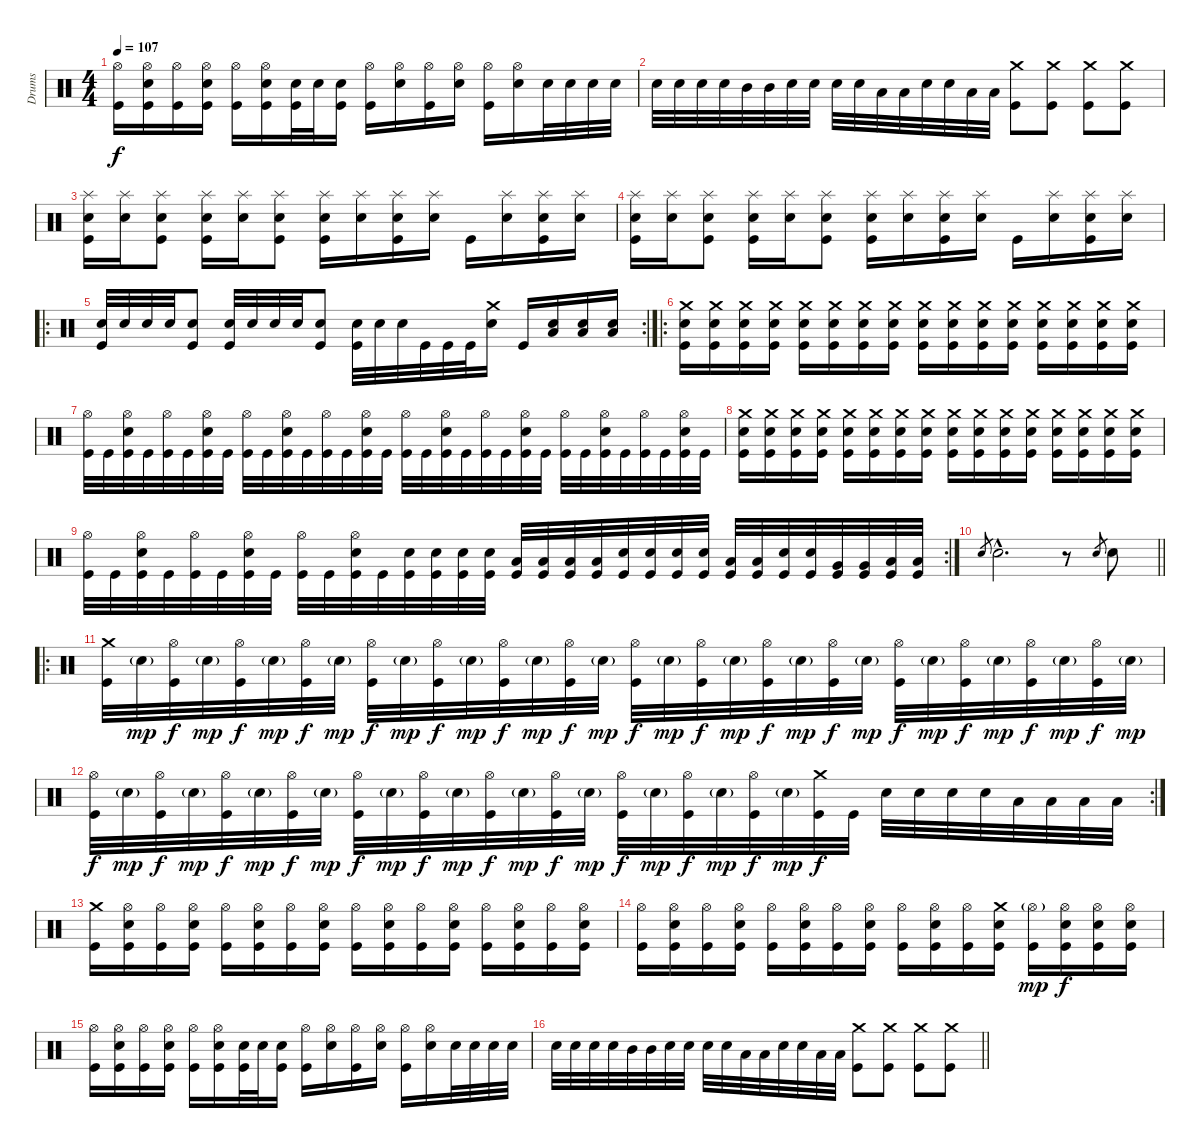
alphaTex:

\track ("Drums" "Drums") {instrument percussion}
\staff {score}
\articulation defaults
\ts (4 4)
\tempo 107
\clef neutral
\ks c
("Hi-Hat (open)" "Kick (hit)").16{dy f} ("Hi-Hat (open)" "Electric Snare (hit)" "Kick (hit)").16 ("Hi-Hat (open)" "Kick (hit)").16 ("Hi-Hat (open)" "Electric Snare (hit)" "Kick (hit)").16 ("Hi-Hat (open)" "Kick (hit)").16 ("Hi-Hat (open)" "Electric Snare (hit)" "Kick (hit)").16 ("Electric Snare (hit)" "Kick (hit)").32 "Electric Snare (hit)".32 ("Electric Snare (hit)" "Kick (hit)").16 ("Hi-Hat (open)" "Kick (hit)").16 ("Hi-Hat (open)" "Electric Snare (hit)").16 ("Hi-Hat (open)" "Kick (hit)").16 ("Hi-Hat (open)" "Electric Snare (hit)").16 ("Hi-Hat (open)" "Kick (hit)").16 ("Hi-Hat (open)" "Electric Snare (hit)").16 "Electric Snare (hit)".32 "Electric Snare (hit)".32 "Electric Snare (hit)".32 "Electric Snare (hit)".32 |
"Electric Snare (hit)".32 "Electric Snare (hit)".32 "Electric Snare (hit)".32 "Electric Snare (hit)".32 "Mid Tom (hit)".32 "Mid Tom (hit)".32 "Electric Snare (hit)".32 "Electric Snare (hit)".32 "Electric Snare (hit)".32 "Electric Snare (hit)".32 "Low Tom (hit)".32 "Low Tom (hit)".32 "Electric Snare (hit)".32 "Electric Snare (hit)".32 "Low Floor Tom (hit)".32 "Low Floor Tom (hit)".32 ("Crash medium (hit)" "Kick (hit)").8 ("Crash medium (hit)" "Kick (hit)").8 ("Crash medium (hit)" "Kick (hit)").8 ("Crash medium (hit)" "Kick (hit)").8 |
("Electric Snare (hit)" "Splash (hit)" "Kick (hit)").16 ("Electric Snare (hit)" "Splash (hit)").16 ("Electric Snare (hit)" "Splash (hit)" "Kick (hit)").8 ("Splash (hit)" "Electric Snare (hit)" "Kick (hit)").16 ("Splash (hit)" "Electric Snare (hit)").16 ("Splash (hit)" "Electric Snare (hit)" "Kick (hit)").8 ("Splash (hit)" "Electric Snare (hit)" "Kick (hit)").16 ("Splash (hit)" "Electric Snare (hit)").16 ("Splash (hit)" "Electric Snare (hit)" "Kick (hit)").16 ("Splash (hit)" "Electric Snare (hit)").16 "Kick (hit)".16 ("Splash (hit)" "Electric Snare (hit)").16 ("Splash (hit)" "Electric Snare (hit)" "Kick (hit)").16 ("Splash (hit)" "Electric Snare (hit)").16 |
("Electric Snare (hit)" "Splash (hit)" "Kick (hit)").16 ("Electric Snare (hit)" "Splash (hit)").16 ("Electric Snare (hit)" "Splash (hit)" "Kick (hit)").8 ("Splash (hit)" "Electric Snare (hit)" "Kick (hit)").16 ("Splash (hit)" "Electric Snare (hit)").16 ("Splash (hit)" "Electric Snare (hit)" "Kick (hit)").8 ("Splash (hit)" "Electric Snare (hit)" "Kick (hit)").16 ("Splash (hit)" "Electric Snare (hit)").16 ("Splash (hit)" "Electric Snare (hit)" "Kick (hit)").16 ("Splash (hit)" "Electric Snare (hit)").16 "Kick (hit)".16 ("Splash (hit)" "Electric Snare (hit)").16 ("Splash (hit)" "Electric Snare (hit)" "Kick (hit)").16 ("Splash (hit)" "Electric Snare (hit)").16 |
\ro
\rc 2
("Electric Snare (hit)" "Kick (hit)").32 "Electric Snare (hit)".32 "Electric Snare (hit)".32 "Electric Snare (hit)".32 ("Electric Snare (hit)" "Kick (hit)").8 ("Electric Snare (hit)" "Kick (hit)").32 "Electric Snare (hit)".32 "Electric Snare (hit)".32 "Electric Snare (hit)".32 ("Electric Snare (hit)" "Kick (hit)").8 ("Electric Snare (hit)" "Kick (hit)").32 "Electric Snare (hit)".32 "Electric Snare (hit)".32 "Kick (hit)".32 "Kick (hit)".32 "Kick (hit)".32 ("Crash medium (hit)" "Electric Snare (hit)").16 "Kick (hit)".16 ("Electric Snare (hit)" "Low Floor Tom (hit)").16 ("Electric Snare (hit)" "Low Floor Tom (hit)").16 ("Electric Snare (hit)" "Low Floor Tom (hit)").16 |
\ro
("Crash medium (hit)" "Electric Snare (hit)" "Kick (hit)").16 ("Crash medium (hit)" "Electric Snare (hit)" "Kick (hit)").16 ("Crash medium (hit)" "Electric Snare (hit)" "Kick (hit)").16 ("Crash medium (hit)" "Electric Snare (hit)" "Kick (hit)").16 ("Crash medium (hit)" "Electric Snare (hit)" "Kick (hit)").16 ("Crash medium (hit)" "Electric Snare (hit)" "Kick (hit)").16 ("Crash medium (hit)" "Electric Snare (hit)" "Kick (hit)").16 ("Crash medium (hit)" "Electric Snare (hit)" "Kick (hit)").16 ("Crash medium (hit)" "Electric Snare (hit)" "Kick (hit)").16 ("Crash medium (hit)" "Electric Snare (hit)" "Kick (hit)").16 ("Crash medium (hit)" "Electric Snare (hit)" "Kick (hit)").16 ("Crash medium (hit)" "Electric Snare (hit)" "Kick (hit)").16 ("Crash medium (hit)" "Electric Snare (hit)" "Kick (hit)").16 ("Crash medium (hit)" "Electric Snare (hit)" "Kick (hit)").16 ("Crash medium (hit)" "Electric Snare (hit)" "Kick (hit)").16 ("Crash medium (hit)" "Electric Snare (hit)" "Kick (hit)").16 |
("Hi-Hat (open)" "Kick (hit)").32 "Kick (hit)".32 ("Hi-Hat (open)" "Electric Snare (hit)" "Kick (hit)").32 "Kick (hit)".32 ("Hi-Hat (open)" "Kick (hit)").32 "Kick (hit)".32 ("Hi-Hat (open)" "Electric Snare (hit)" "Kick (hit)").32 "Kick (hit)".32 ("Hi-Hat (open)" "Kick (hit)").32 "Kick (hit)".32 ("Hi-Hat (open)" "Electric Snare (hit)" "Kick (hit)").32 "Kick (hit)".32 ("Hi-Hat (open)" "Kick (hit)").32 "Kick (hit)".32 ("Hi-Hat (open)" "Electric Snare (hit)" "Kick (hit)").32 "Kick (hit)".32 ("Hi-Hat (open)" "Kick (hit)").32 "Kick (hit)".32 ("Hi-Hat (open)" "Electric Snare (hit)" "Kick (hit)").32 "Kick (hit)".32 ("Hi-Hat (open)" "Kick (hit)").32 "Kick (hit)".32 ("Hi-Hat (open)" "Electric Snare (hit)" "Kick (hit)").32 "Kick (hit)".32 ("Hi-Hat (open)" "Kick (hit)").32 "Kick (hit)".32 ("Hi-Hat (open)" "Electric Snare (hit)" "Kick (hit)").32 "Kick (hit)".32 ("Hi-Hat (open)" "Kick (hit)").32 "Kick (hit)".32 ("Hi-Hat (open)" "Electric Snare (hit)" "Kick (hit)").32 "Kick (hit)".32 |
("Crash medium (hit)" "Electric Snare (hit)" "Kick (hit)").16 ("Crash medium (hit)" "Electric Snare (hit)" "Kick (hit)").16 ("Crash medium (hit)" "Electric Snare (hit)" "Kick (hit)").16 ("Crash medium (hit)" "Electric Snare (hit)" "Kick (hit)").16 ("Crash medium (hit)" "Electric Snare (hit)" "Kick (hit)").16 ("Crash medium (hit)" "Electric Snare (hit)" "Kick (hit)").16 ("Crash medium (hit)" "Electric Snare (hit)" "Kick (hit)").16 ("Crash medium (hit)" "Electric Snare (hit)" "Kick (hit)").16 ("Crash medium (hit)" "Electric Snare (hit)" "Kick (hit)").16 ("Crash medium (hit)" "Electric Snare (hit)" "Kick (hit)").16 ("Crash medium (hit)" "Electric Snare (hit)" "Kick (hit)").16 ("Crash medium (hit)" "Electric Snare (hit)" "Kick (hit)").16 ("Crash medium (hit)" "Electric Snare (hit)" "Kick (hit)").16 ("Crash medium (hit)" "Electric Snare (hit)" "Kick (hit)").16 ("Crash medium (hit)" "Electric Snare (hit)" "Kick (hit)").16 ("Crash medium (hit)" "Electric Snare (hit)" "Kick (hit)").16 |
\rc 2
("Hi-Hat (open)" "Kick (hit)").32 "Kick (hit)".32 ("Hi-Hat (open)" "Electric Snare (hit)" "Kick (hit)").32 "Kick (hit)".32 ("Hi-Hat (open)" "Kick (hit)").32 "Kick (hit)".32 ("Hi-Hat (open)" "Electric Snare (hit)" "Kick (hit)").32 "Kick (hit)".32 ("Hi-Hat (open)" "Kick (hit)").32 "Kick (hit)".32 ("Hi-Hat (open)" "Electric Snare (hit)" "Kick (hit)").32 "Kick (hit)".32 ("Electric Snare (hit)" "Kick (hit)").32 ("Electric Snare (hit)" "Kick (hit)").32 ("Electric Snare (hit)" "Kick (hit)").32 ("Electric Snare (hit)" "Kick (hit)").32 ("Low Tom (hit)" "Kick (hit)").32 ("Low Tom (hit)" "Kick (hit)").32 ("Low Tom (hit)" "Kick (hit)").32 ("Low Tom (hit)" "Kick (hit)").32 ("Electric Snare (hit)" "Kick (hit)").32 ("Electric Snare (hit)" "Kick (hit)").32 ("Electric Snare (hit)" "Kick (hit)").32 ("Electric Snare (hit)" "Kick (hit)").32 ("Low Tom (hit)" "Kick (hit)").32 ("Low Tom (hit)" "Kick (hit)").32 ("Electric Snare (hit)" "Kick (hit)").32 ("Electric Snare (hit)" "Kick (hit)").32 ("Very Low Tom (hit)" "Kick (hit)").32 ("Very Low Tom (hit)" "Kick (hit)").32 ("Low Floor Tom (hit)" "Kick (hit)").32 ("Low Floor Tom (hit)" "Kick (hit)").32 |
\barLineRight lightlight "Electric Snare (hit)".8{gr} "Electric Snare (hit)"{hac}.2{d}
r.8 "Electric Snare (hit)".8{gr} "Electric Snare (hit)".8 |
\ro
("Crash medium (hit)" "Kick (hit)").32 "Electric Snare (hit)"{g}.32{dy mp} ("Hi-Hat (open)" "Kick (hit)").32{dy f} "Electric Snare (hit)"{g}.32{dy mp} ("Hi-Hat (open)" "Kick (hit)").32{dy f} "Electric Snare (hit)"{g}.32{dy mp} ("Hi-Hat (open)" "Kick (hit)").32{dy f} "Electric Snare (hit)"{g}.32{dy mp} ("Hi-Hat (open)" "Kick (hit)").32{dy f} "Electric Snare (hit)"{g}.32{dy mp} ("Hi-Hat (open)" "Kick (hit)").32{dy f} "Electric Snare (hit)"{g}.32{dy mp} ("Hi-Hat (open)" "Kick (hit)").32{dy f} "Electric Snare (hit)"{g}.32{dy mp} ("Hi-Hat (open)" "Kick (hit)").32{dy f} "Electric Snare (hit)"{g}.32{dy mp} ("Hi-Hat (open)" "Kick (hit)").32{dy f} "Electric Snare (hit)"{g}.32{dy mp} ("Hi-Hat (open)" "Kick (hit)").32{dy f} "Electric Snare (hit)"{g}.32{dy mp} ("Hi-Hat (open)" "Kick (hit)").32{dy f} "Electric Snare (hit)"{g}.32{dy mp} ("Hi-Hat (open)" "Kick (hit)").32{dy f} "Electric Snare (hit)"{g}.32{dy mp} ("Hi-Hat (open)" "Kick (hit)").32{dy f} "Electric Snare (hit)"{g}.32{dy mp} ("Hi-Hat (open)" "Kick (hit)").32{dy f} "Electric Snare (hit)"{g}.32{dy mp} ("Hi-Hat (open)" "Kick (hit)").32{dy f} "Electric Snare (hit)"{g}.32{dy mp} ("Hi-Hat (open)" "Kick (hit)").32{dy f} "Electric Snare (hit)"{g}.32{dy mp} |
\rc 2
("Hi-Hat (open)" "Kick (hit)").32{dy f} "Electric Snare (hit)"{g}.32{dy mp} ("Hi-Hat (open)" "Kick (hit)").32{dy f} "Electric Snare (hit)"{g}.32{dy mp} ("Hi-Hat (open)" "Kick (hit)").32{dy f} "Electric Snare (hit)"{g}.32{dy mp} ("Hi-Hat (open)" "Kick (hit)").32{dy f} "Electric Snare (hit)"{g}.32{dy mp} ("Hi-Hat (open)" "Kick (hit)").32{dy f} "Electric Snare (hit)"{g}.32{dy mp} ("Hi-Hat (open)" "Kick (hit)").32{dy f} "Electric Snare (hit)"{g}.32{dy mp} ("Hi-Hat (open)" "Kick (hit)").32{dy f} "Electric Snare (hit)"{g}.32{dy mp} ("Hi-Hat (open)" "Kick (hit)").32{dy f} "Electric Snare (hit)"{g}.32{dy mp} ("Hi-Hat (open)" "Kick (hit)").32{dy f} "Electric Snare (hit)"{g}.32{dy mp} ("Hi-Hat (open)" "Kick (hit)").32{dy f} "Electric Snare (hit)"{g}.32{dy mp} ("Hi-Hat (open)" "Kick (hit)").32{dy f} "Electric Snare (hit)"{g}.32{dy mp} ("Crash medium (hit)" "Kick (hit)").32{dy f} "Kick (hit)".32 "Electric Snare (hit)".32 "Electric Snare (hit)".32 "Electric Snare (hit)".32 "Electric Snare (hit)".32 "Low Tom (hit)".32 "Low Tom (hit)".32 "Low Tom (hit)".32 "Low Tom (hit)".32 |
("Crash medium (hit)" "Kick (hit)").16 ("Hi-Hat (open)" "Electric Snare (hit)" "Kick (hit)").16 ("Hi-Hat (open)" "Kick (hit)").16 ("Hi-Hat (open)" "Electric Snare (hit)" "Kick (hit)").16 ("Hi-Hat (open)" "Kick (hit)").16 ("Hi-Hat (open)" "Electric Snare (hit)" "Kick (hit)").16 ("Hi-Hat (open)" "Kick (hit)").16 ("Hi-Hat (open)" "Electric Snare (hit)" "Kick (hit)").16 ("Hi-Hat (open)" "Kick (hit)").16 ("Hi-Hat (open)" "Electric Snare (hit)" "Kick (hit)").16 ("Hi-Hat (open)" "Kick (hit)").16 ("Hi-Hat (open)" "Electric Snare (hit)" "Kick (hit)").16 ("Hi-Hat (open)" "Kick (hit)").16 ("Hi-Hat (open)" "Electric Snare (hit)" "Kick (hit)").16 ("Hi-Hat (open)" "Kick (hit)").16 ("Hi-Hat (open)" "Electric Snare (hit)" "Kick (hit)").16 |
("Hi-Hat (open)" "Kick (hit)").16 ("Hi-Hat (open)" "Electric Snare (hit)" "Kick (hit)").16 ("Hi-Hat (open)" "Kick (hit)").16 ("Hi-Hat (open)" "Electric Snare (hit)" "Kick (hit)").16 ("Hi-Hat (open)" "Kick (hit)").16 ("Hi-Hat (open)" "Electric Snare (hit)" "Kick (hit)").16 ("Hi-Hat (open)" "Kick (hit)").16 ("Hi-Hat (open)" "Electric Snare (hit)" "Kick (hit)").16 ("Hi-Hat (open)" "Kick (hit)").16 ("Hi-Hat (open)" "Electric Snare (hit)" "Kick (hit)").16 ("Hi-Hat (open)" "Kick (hit)").16 ("Crash medium (hit)" "Electric Snare (hit)" "Kick (hit)").16 ("Hi-Hat (open)"{g} "Kick (hit)").16{dy mp} ("Hi-Hat (open)" "Electric Snare (hit)" "Kick (hit)").16{dy f} ("Hi-Hat (open)" "Electric Snare (hit)" "Kick (hit)").16 ("Hi-Hat (open)" "Electric Snare (hit)" "Kick (hit)").16 |
("Hi-Hat (open)" "Kick (hit)").16 ("Hi-Hat (open)" "Electric Snare (hit)" "Kick (hit)").16 ("Hi-Hat (open)" "Kick (hit)").16 ("Hi-Hat (open)" "Electric Snare (hit)" "Kick (hit)").16 ("Hi-Hat (open)" "Kick (hit)").16 ("Hi-Hat (open)" "Electric Snare (hit)" "Kick (hit)").16 ("Electric Snare (hit)" "Kick (hit)").32 "Electric Snare (hit)".32 ("Electric Snare (hit)" "Kick (hit)").16 ("Hi-Hat (open)" "Kick (hit)").16 ("Hi-Hat (open)" "Electric Snare (hit)").16 ("Hi-Hat (open)" "Kick (hit)").16 ("Hi-Hat (open)" "Electric Snare (hit)").16 ("Hi-Hat (open)" "Kick (hit)").16 ("Hi-Hat (open)" "Electric Snare (hit)").16 "Electric Snare (hit)".32 "Electric Snare (hit)".32 "Electric Snare (hit)".32 "Electric Snare (hit)".32 |
\barLineRight lightlight "Electric Snare (hit)".32 "Electric Snare (hit)".32 "Electric Snare (hit)".32 "Electric Snare (hit)".32 "Mid Tom (hit)".32 "Mid Tom (hit)".32 "Electric Snare (hit)".32 "Electric Snare (hit)".32 "Electric Snare (hit)".32 "Electric Snare (hit)".32 "Low Tom (hit)".32 "Low Tom (hit)".32 "Electric Snare (hit)".32 "Electric Snare (hit)".32 "Low Floor Tom (hit)".32 "Low Floor Tom (hit)".32
("Crash medium (hit)" "Kick (hit)").8 ("Crash medium (hit)" "Kick (hit)").8 ("Crash medium (hit)" "Kick (hit)").8 ("Crash medium (hit)" "Kick (hit)").8
